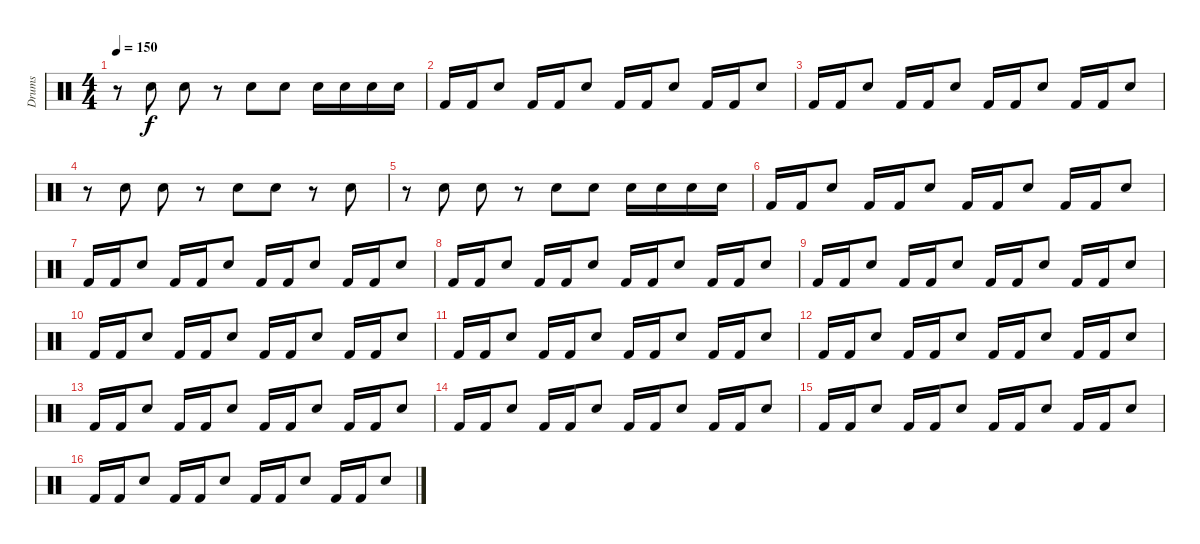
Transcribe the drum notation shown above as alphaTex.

\track ("Drums" "Drums") {instrument percussion}
\staff {score}
\articulation defaults
\ts (4 4)
\tempo 150
\clef neutral
\ks c
r.8{dy f} "Snare (hit) 2".8 "Snare (hit) 2".8 r.8 "Snare (hit) 2".8 "Snare (hit) 2".8 "Snare (hit) 2".16 "Snare (hit) 2".16 "Snare (hit) 2".16 "Snare (hit) 2".16 |
"Kick (hit) 2".16 "Kick (hit) 2".16 "Snare (hit) 2".8 "Kick (hit) 2".16 "Kick (hit) 2".16 "Snare (hit) 2".8 "Kick (hit) 2".16 "Kick (hit) 2".16 "Snare (hit) 2".8 "Kick (hit) 2".16 "Kick (hit) 2".16 "Snare (hit) 2".8 |
"Kick (hit) 2".16 "Kick (hit) 2".16 "Snare (hit) 2".8 "Kick (hit) 2".16 "Kick (hit) 2".16 "Snare (hit) 2".8 "Kick (hit) 2".16 "Kick (hit) 2".16 "Snare (hit) 2".8 "Kick (hit) 2".16 "Kick (hit) 2".16 "Snare (hit) 2".8 |
r.8 "Snare (hit) 2".8 "Snare (hit) 2".8 r.8 "Snare (hit) 2".8 "Snare (hit) 2".8 r.8 "Snare (hit) 2".8 |
r.8 "Snare (hit) 2".8 "Snare (hit) 2".8 r.8 "Snare (hit) 2".8 "Snare (hit) 2".8 "Snare (hit) 2".16 "Snare (hit) 2".16 "Snare (hit) 2".16 "Snare (hit) 2".16 |
"Kick (hit) 2".16 "Kick (hit) 2".16 "Snare (hit) 2".8 "Kick (hit) 2".16 "Kick (hit) 2".16 "Snare (hit) 2".8 "Kick (hit) 2".16 "Kick (hit) 2".16 "Snare (hit) 2".8 "Kick (hit) 2".16 "Kick (hit) 2".16 "Snare (hit) 2".8 |
"Kick (hit) 2".16 "Kick (hit) 2".16 "Snare (hit) 2".8 "Kick (hit) 2".16 "Kick (hit) 2".16 "Snare (hit) 2".8 "Kick (hit) 2".16 "Kick (hit) 2".16 "Snare (hit) 2".8 "Kick (hit) 2".16 "Kick (hit) 2".16 "Snare (hit) 2".8 |
"Kick (hit) 2".16 "Kick (hit) 2".16 "Snare (hit) 2".8 "Kick (hit) 2".16 "Kick (hit) 2".16 "Snare (hit) 2".8 "Kick (hit) 2".16 "Kick (hit) 2".16 "Snare (hit) 2".8 "Kick (hit) 2".16 "Kick (hit) 2".16 "Snare (hit) 2".8 |
"Kick (hit) 2".16 "Kick (hit) 2".16 "Snare (hit) 2".8 "Kick (hit) 2".16 "Kick (hit) 2".16 "Snare (hit) 2".8 "Kick (hit) 2".16 "Kick (hit) 2".16 "Snare (hit) 2".8 "Kick (hit) 2".16 "Kick (hit) 2".16 "Snare (hit) 2".8 |
"Kick (hit) 2".16 "Kick (hit) 2".16 "Snare (hit) 2".8 "Kick (hit) 2".16 "Kick (hit) 2".16 "Snare (hit) 2".8 "Kick (hit) 2".16 "Kick (hit) 2".16 "Snare (hit) 2".8 "Kick (hit) 2".16 "Kick (hit) 2".16 "Snare (hit) 2".8 |
"Kick (hit) 2".16 "Kick (hit) 2".16 "Snare (hit) 2".8 "Kick (hit) 2".16 "Kick (hit) 2".16 "Snare (hit) 2".8 "Kick (hit) 2".16 "Kick (hit) 2".16 "Snare (hit) 2".8 "Kick (hit) 2".16 "Kick (hit) 2".16 "Snare (hit) 2".8 |
"Kick (hit) 2".16 "Kick (hit) 2".16 "Snare (hit) 2".8 "Kick (hit) 2".16 "Kick (hit) 2".16 "Snare (hit) 2".8 "Kick (hit) 2".16 "Kick (hit) 2".16 "Snare (hit) 2".8 "Kick (hit) 2".16 "Kick (hit) 2".16 "Snare (hit) 2".8 |
"Kick (hit) 2".16 "Kick (hit) 2".16 "Snare (hit) 2".8 "Kick (hit) 2".16 "Kick (hit) 2".16 "Snare (hit) 2".8 "Kick (hit) 2".16 "Kick (hit) 2".16 "Snare (hit) 2".8 "Kick (hit) 2".16 "Kick (hit) 2".16 "Snare (hit) 2".8 |
"Kick (hit) 2".16 "Kick (hit) 2".16 "Snare (hit) 2".8 "Kick (hit) 2".16 "Kick (hit) 2".16 "Snare (hit) 2".8 "Kick (hit) 2".16 "Kick (hit) 2".16 "Snare (hit) 2".8 "Kick (hit) 2".16 "Kick (hit) 2".16 "Snare (hit) 2".8 |
"Kick (hit) 2".16 "Kick (hit) 2".16 "Snare (hit) 2".8 "Kick (hit) 2".16 "Kick (hit) 2".16 "Snare (hit) 2".8 "Kick (hit) 2".16 "Kick (hit) 2".16 "Snare (hit) 2".8 "Kick (hit) 2".16 "Kick (hit) 2".16 "Snare (hit) 2".8 |
"Kick (hit) 2".16 "Kick (hit) 2".16 "Snare (hit) 2".8 "Kick (hit) 2".16 "Kick (hit) 2".16 "Snare (hit) 2".8 "Kick (hit) 2".16 "Kick (hit) 2".16 "Snare (hit) 2".8 "Kick (hit) 2".16 "Kick (hit) 2".16 "Snare (hit) 2".8
